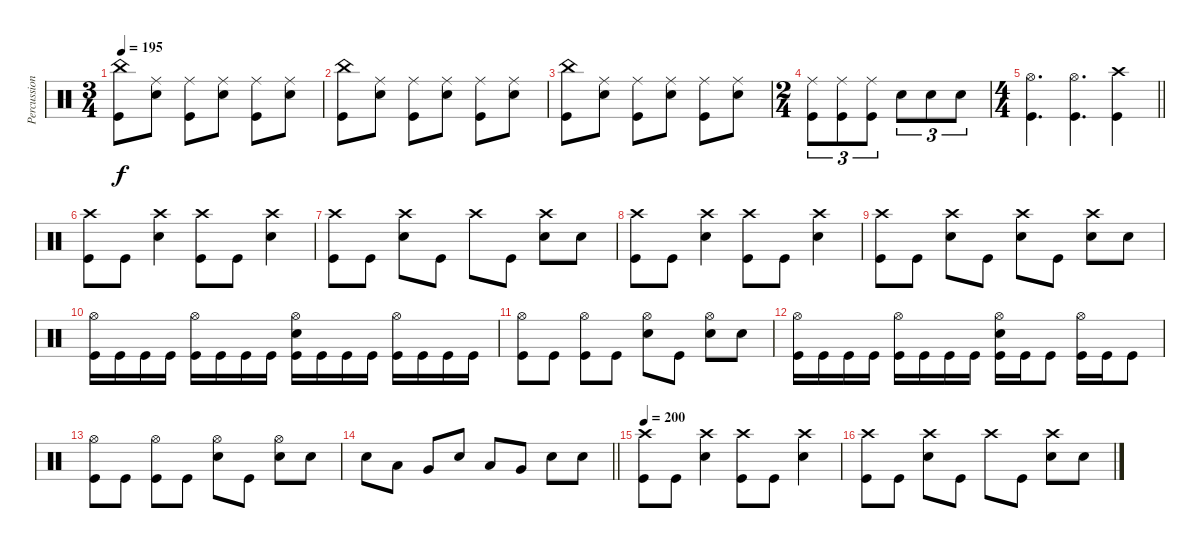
\track ("Percussion" "Percussion") {instrument percussion}
\staff {score}
\articulation defaults
\ts (3 4)
\tempo 195
\clef neutral
\ks c
("China (hit)" "Kick (hit)").8{dy f} ("Ride (middle)" "Electric Snare (hit)").8 ("Ride (middle)" "Kick (hit)").8 ("Ride (middle)" "Electric Snare (hit)").8 ("Ride (middle)" "Kick (hit)").8 ("Ride (middle)" "Electric Snare (hit)").8 |
("China (hit)" "Kick (hit)").8 ("Ride (middle)" "Electric Snare (hit)").8 ("Ride (middle)" "Kick (hit)").8 ("Ride (middle)" "Electric Snare (hit)").8 ("Ride (middle)" "Kick (hit)").8 ("Ride (middle)" "Electric Snare (hit)").8 |
("China (hit)" "Kick (hit)").8 ("Ride (middle)" "Electric Snare (hit)").8 ("Ride (middle)" "Kick (hit)").8 ("Ride (middle)" "Electric Snare (hit)").8 ("Ride (middle)" "Kick (hit)").8 ("Ride (middle)" "Electric Snare (hit)").8 |
\ts (2 4)
("Ride (middle)" "Kick (hit)").8{tu (3 2)} ("Ride (middle)" "Kick (hit)").8{tu (3 2)} ("Ride (middle)" "Kick (hit)").8{tu (3 2)} "Electric Snare (hit)".8{tu (3 2)} "Electric Snare (hit)".8{tu (3 2)} "Electric Snare (hit)".8{tu (3 2)} |
\ts (4 4)
\barLineRight lightlight
("Hi-Hat (open)" "Kick (hit)").4{d} ("Hi-Hat (open)" "Kick (hit)").4{d} ("Crash high (hit)" "Kick (hit)").4 |
("Crash high (hit)" "Kick (hit)").8 "Kick (hit)".8 ("Crash high (hit)" "Electric Snare (hit)").4 ("Crash high (hit)" "Kick (hit)").8 "Kick (hit)".8 ("Crash high (hit)" "Electric Snare (hit)").4 |
("Crash high (hit)" "Kick (hit)").8 "Kick (hit)".8 ("Crash high (hit)" "Electric Snare (hit)").8 "Kick (hit)".8 "Crash high (hit)".8 "Kick (hit)".8 ("Crash high (hit)" "Electric Snare (hit)").8 "Electric Snare (hit)".8 |
("Crash high (hit)" "Kick (hit)").8 "Kick (hit)".8 ("Crash high (hit)" "Electric Snare (hit)").4 ("Crash high (hit)" "Kick (hit)").8 "Kick (hit)".8 ("Crash high (hit)" "Electric Snare (hit)").4 |
("Crash high (hit)" "Kick (hit)").8 "Kick (hit)".8 ("Crash high (hit)" "Electric Snare (hit)").8 "Kick (hit)".8 ("Crash high (hit)" "Electric Snare (hit)").8 "Kick (hit)".8 ("Crash high (hit)" "Electric Snare (hit)").8 "Electric Snare (hit)".8 |
("Hi-Hat (open)" "Kick (hit)").16 "Kick (hit)".16 "Kick (hit)".16 "Kick (hit)".16 ("Hi-Hat (open)" "Kick (hit)").16 "Kick (hit)".16 "Kick (hit)".16 "Kick (hit)".16 ("Hi-Hat (open)" "Electric Snare (hit)" "Kick (hit)").16 "Kick (hit)".16 "Kick (hit)".16 "Kick (hit)".16 ("Hi-Hat (open)" "Kick (hit)").16 "Kick (hit)".16 "Kick (hit)".16 "Kick (hit)".16 |
("Hi-Hat (open)" "Kick (hit)").8 "Kick (hit)".8 ("Hi-Hat (open)" "Kick (hit)").8 "Kick (hit)".8 ("Hi-Hat (open)" "Electric Snare (hit)").8 "Kick (hit)".8 ("Hi-Hat (open)" "Electric Snare (hit)").8 "Electric Snare (hit)".8 |
("Hi-Hat (open)" "Kick (hit)").16 "Kick (hit)".16 "Kick (hit)".16 "Kick (hit)".16 ("Hi-Hat (open)" "Kick (hit)").16 "Kick (hit)".16 "Kick (hit)".16 "Kick (hit)".16 ("Hi-Hat (open)" "Electric Snare (hit)" "Kick (hit)").16 "Kick (hit)".16 "Kick (hit)".8 ("Hi-Hat (open)" "Kick (hit)").16 "Kick (hit)".16 "Kick (hit)".8 |
("Hi-Hat (open)" "Kick (hit)").8 "Kick (hit)".8 ("Hi-Hat (open)" "Kick (hit)").8 "Kick (hit)".8 ("Hi-Hat (open)" "Electric Snare (hit)").8 "Kick (hit)".8 ("Hi-Hat (open)" "Electric Snare (hit)").8 "Electric Snare (hit)".8 |
\barLineRight lightlight "Electric Snare (hit)".8 "Low Tom (hit)".8 "Very Low Tom (hit)".8 "Electric Snare (hit)".8 "Low Tom (hit)".8 "Very Low Tom (hit)".8 "Electric Snare (hit)".8 "Electric Snare (hit)".8
|
\tempo 200
("Crash high (hit)" "Kick (hit)").8 "Kick (hit)".8 ("Crash high (hit)" "Electric Snare (hit)").4 ("Crash high (hit)" "Kick (hit)").8 "Kick (hit)".8 ("Crash high (hit)" "Electric Snare (hit)").4 |
("Crash high (hit)" "Kick (hit)").8 "Kick (hit)".8 ("Crash high (hit)" "Electric Snare (hit)").8 "Kick (hit)".8 "Crash high (hit)".8 "Kick (hit)".8 ("Crash high (hit)" "Electric Snare (hit)").8 "Electric Snare (hit)".8
